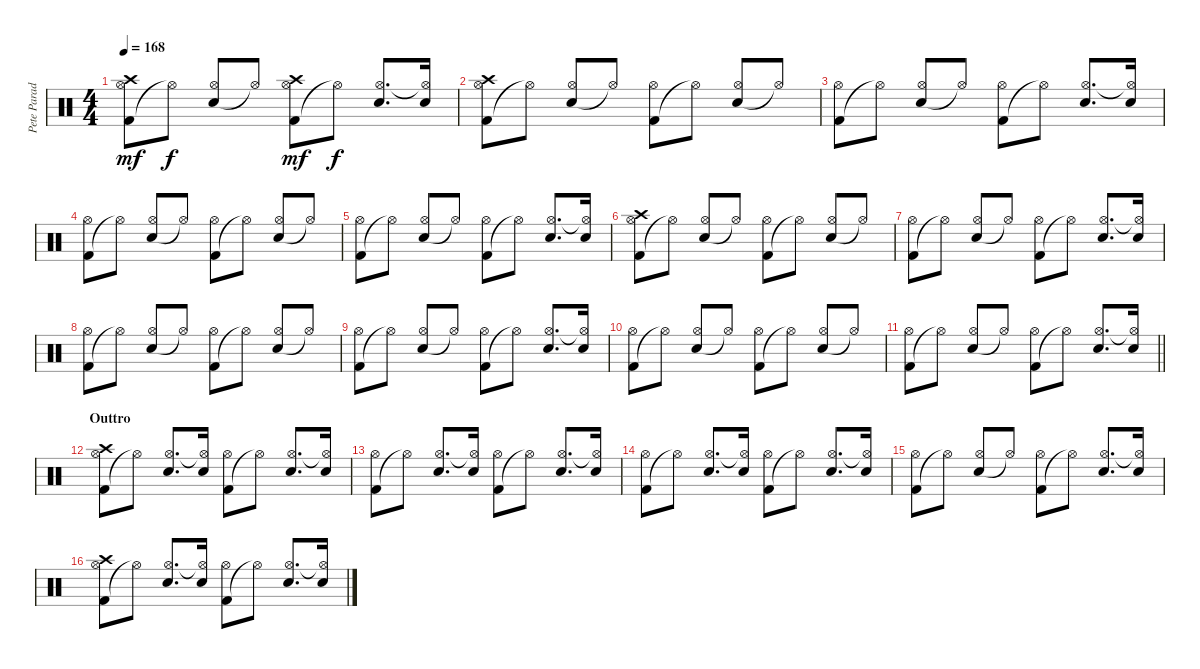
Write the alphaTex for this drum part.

\track ("Pete Parada" "Pete Parad") {instrument percussion}
\staff {score}
\articulation defaults
\ts (4 4)
\tempo 168
\clef neutral
\ks c
("Kick (hit) 2" "Hi-Hat (open)" "Crash high (hit)").8{dy mf} "Hi-Hat (open)"{t}.8{dy f} ("Electric Snare (hit)" "Hi-Hat (open)").8{beam Up} "Hi-Hat (open)"{t}.8{beam Up} ("Kick (hit) 2" "Hi-Hat (open)" "Crash high (hit)").8{dy mf} "Hi-Hat (open)"{t}.8{dy f} ("Electric Snare (hit)" "Hi-Hat (open)").8{d beam Up} ("Electric Snare (hit)" "Hi-Hat (open)"{t}).16{beam Up} |
("Kick (hit) 2" "Hi-Hat (open)" "Crash high (hit)").8 "Hi-Hat (open)"{t}.8 ("Electric Snare (hit)" "Hi-Hat (open)").8{beam Up} "Hi-Hat (open)"{t}.8{beam Up} ("Kick (hit) 2" "Hi-Hat (open)").8 "Hi-Hat (open)"{t}.8 ("Electric Snare (hit)" "Hi-Hat (open)").8{beam Up} "Hi-Hat (open)"{t}.8{beam Up} |
("Kick (hit) 2" "Hi-Hat (open)").8 "Hi-Hat (open)"{t}.8 ("Electric Snare (hit)" "Hi-Hat (open)").8{beam Up} "Hi-Hat (open)"{t}.8{beam Up} ("Kick (hit) 2" "Hi-Hat (open)").8 "Hi-Hat (open)"{t}.8 ("Electric Snare (hit)" "Hi-Hat (open)").8{d beam Up} ("Electric Snare (hit)" "Hi-Hat (open)"{t}).16{beam Up} |
("Kick (hit) 2" "Hi-Hat (open)").8 "Hi-Hat (open)"{t}.8 ("Electric Snare (hit)" "Hi-Hat (open)").8{beam Up} "Hi-Hat (open)"{t}.8{beam Up} ("Kick (hit) 2" "Hi-Hat (open)").8 "Hi-Hat (open)"{t}.8 ("Electric Snare (hit)" "Hi-Hat (open)").8{beam Up} "Hi-Hat (open)"{t}.8{beam Up} |
("Kick (hit) 2" "Hi-Hat (open)").8 "Hi-Hat (open)"{t}.8 ("Electric Snare (hit)" "Hi-Hat (open)").8{beam Up} "Hi-Hat (open)"{t}.8{beam Up} ("Kick (hit) 2" "Hi-Hat (open)").8 "Hi-Hat (open)"{t}.8 ("Electric Snare (hit)" "Hi-Hat (open)").8{d beam Up} ("Electric Snare (hit)" "Hi-Hat (open)"{t}).16{beam Up} |
("Kick (hit) 2" "Hi-Hat (open)" "Crash high (hit)").8 "Hi-Hat (open)"{t}.8 ("Electric Snare (hit)" "Hi-Hat (open)").8{beam Up} "Hi-Hat (open)"{t}.8{beam Up} ("Kick (hit) 2" "Hi-Hat (open)").8 "Hi-Hat (open)"{t}.8 ("Electric Snare (hit)" "Hi-Hat (open)").8{beam Up} "Hi-Hat (open)"{t}.8{beam Up} |
("Kick (hit) 2" "Hi-Hat (open)").8 "Hi-Hat (open)"{t}.8 ("Electric Snare (hit)" "Hi-Hat (open)").8{beam Up} "Hi-Hat (open)"{t}.8{beam Up} ("Kick (hit) 2" "Hi-Hat (open)").8 "Hi-Hat (open)"{t}.8 ("Electric Snare (hit)" "Hi-Hat (open)").8{d beam Up} ("Electric Snare (hit)" "Hi-Hat (open)"{t}).16{beam Up} |
("Kick (hit) 2" "Hi-Hat (open)").8 "Hi-Hat (open)"{t}.8 ("Electric Snare (hit)" "Hi-Hat (open)").8{beam Up} "Hi-Hat (open)"{t}.8{beam Up} ("Kick (hit) 2" "Hi-Hat (open)").8 "Hi-Hat (open)"{t}.8 ("Electric Snare (hit)" "Hi-Hat (open)").8{beam Up} "Hi-Hat (open)"{t}.8{beam Up} |
("Kick (hit) 2" "Hi-Hat (open)").8 "Hi-Hat (open)"{t}.8 ("Electric Snare (hit)" "Hi-Hat (open)").8{beam Up} "Hi-Hat (open)"{t}.8{beam Up} ("Kick (hit) 2" "Hi-Hat (open)").8 "Hi-Hat (open)"{t}.8 ("Electric Snare (hit)" "Hi-Hat (open)").8{d beam Up} ("Electric Snare (hit)" "Hi-Hat (open)"{t}).16{beam Up} |
("Kick (hit) 2" "Hi-Hat (open)").8 "Hi-Hat (open)"{t}.8 ("Electric Snare (hit)" "Hi-Hat (open)").8{beam Up} "Hi-Hat (open)"{t}.8{beam Up} ("Kick (hit) 2" "Hi-Hat (open)").8 "Hi-Hat (open)"{t}.8 ("Electric Snare (hit)" "Hi-Hat (open)").8{beam Up} "Hi-Hat (open)"{t}.8{beam Up} |
\barLineRight lightlight
("Kick (hit) 2" "Hi-Hat (open)").8 "Hi-Hat (open)"{t}.8 ("Electric Snare (hit)" "Hi-Hat (open)").8{beam Up} "Hi-Hat (open)"{t}.8{beam Up} ("Kick (hit) 2" "Hi-Hat (open)").8 "Hi-Hat (open)"{t}.8 ("Electric Snare (hit)" "Hi-Hat (open)").8{d beam Up} ("Electric Snare (hit)" "Hi-Hat (open)"{t}).16{beam Up} |
\section ("" "Outtro")
("Kick (hit) 2" "Hi-Hat (open)" "Crash high (hit)").8 "Hi-Hat (open)"{t}.8 ("Electric Snare (hit)" "Hi-Hat (open)").8{d beam Up} ("Electric Snare (hit)" "Hi-Hat (open)"{t}).16{beam Up} ("Kick (hit) 2" "Hi-Hat (open)").8 "Hi-Hat (open)"{t}.8 ("Electric Snare (hit)" "Hi-Hat (open)").8{d beam Up} ("Electric Snare (hit)" "Hi-Hat (open)"{t}).16{beam Up} |
("Kick (hit) 2" "Hi-Hat (open)").8 "Hi-Hat (open)"{t}.8 ("Electric Snare (hit)" "Hi-Hat (open)").8{d beam Up} ("Electric Snare (hit)" "Hi-Hat (open)"{t}).16{beam Up} ("Kick (hit) 2" "Hi-Hat (open)").8 "Hi-Hat (open)"{t}.8 ("Electric Snare (hit)" "Hi-Hat (open)").8{d beam Up} ("Electric Snare (hit)" "Hi-Hat (open)"{t}).16{beam Up} |
("Kick (hit) 2" "Hi-Hat (open)").8 "Hi-Hat (open)"{t}.8 ("Electric Snare (hit)" "Hi-Hat (open)").8{d beam Up} ("Electric Snare (hit)" "Hi-Hat (open)"{t}).16{beam Up} ("Kick (hit) 2" "Hi-Hat (open)").8 "Hi-Hat (open)"{t}.8 ("Electric Snare (hit)" "Hi-Hat (open)").8{d beam Up} ("Electric Snare (hit)" "Hi-Hat (open)"{t}).16{beam Up} |
("Kick (hit) 2" "Hi-Hat (open)").8 "Hi-Hat (open)"{t}.8 ("Electric Snare (hit)" "Hi-Hat (open)").8{beam Up} "Hi-Hat (open)"{t}.8{beam Up} ("Kick (hit) 2" "Hi-Hat (open)").8 "Hi-Hat (open)"{t}.8 ("Electric Snare (hit)" "Hi-Hat (open)").8{d beam Up} ("Electric Snare (hit)" "Hi-Hat (open)"{t}).16{beam Up} |
("Kick (hit) 2" "Hi-Hat (open)" "Crash high (hit)").8 "Hi-Hat (open)"{t}.8 ("Electric Snare (hit)" "Hi-Hat (open)").8{d beam Up} ("Electric Snare (hit)" "Hi-Hat (open)"{t}).16{beam Up} ("Kick (hit) 2" "Hi-Hat (open)").8 "Hi-Hat (open)"{t}.8 ("Electric Snare (hit)" "Hi-Hat (open)").8{d beam Up} ("Electric Snare (hit)" "Hi-Hat (open)"{t}).16{beam Up}
